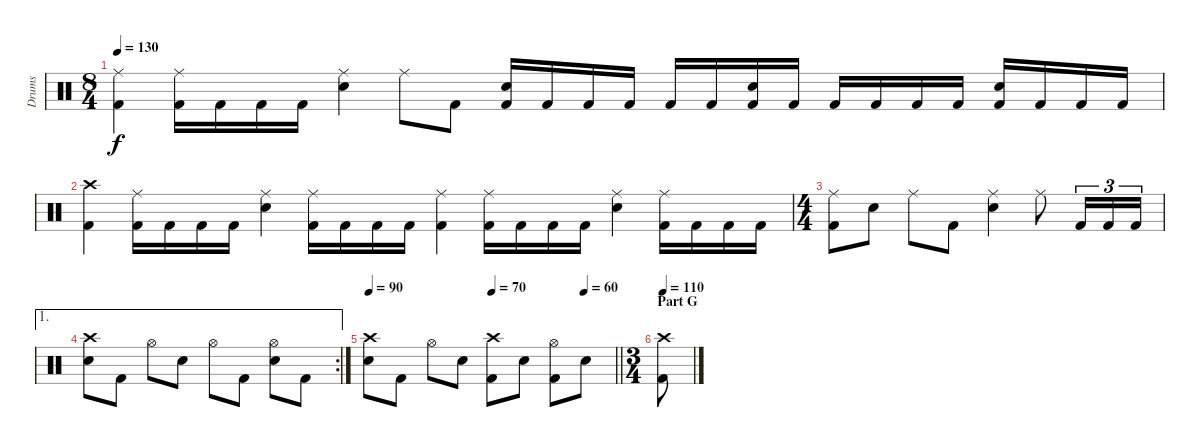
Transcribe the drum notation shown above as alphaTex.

\track ("Drums" "Drums") {instrument percussion}
\staff {score}
\articulation defaults
\ts (8 4)
\tempo 130
\clef neutral
\ks c
("Kick (hit) 2" "Ride (middle)").4{dy f} ("Kick (hit) 2" "Ride (middle)").16 "Kick (hit) 2".16 "Kick (hit) 2".16 "Kick (hit) 2".16 ("Snare (hit) 2" "Ride (middle)").4 "Ride (middle)".8 "Kick (hit) 2".8 ("Snare (hit) 2" "Kick (hit) 2").16 "Kick (hit) 2".16 "Kick (hit) 2".16 "Kick (hit) 2".16 "Kick (hit) 2".16 "Kick (hit) 2".16 ("Kick (hit) 2" "Snare (hit) 2").16 "Kick (hit) 2".16 "Kick (hit) 2".16 "Kick (hit) 2".16 "Kick (hit) 2".16 "Kick (hit) 2".16 ("Kick (hit) 2" "Snare (hit) 2").16 "Kick (hit) 2".16 "Kick (hit) 2".16 "Kick (hit) 2".16 |
("Kick (hit) 2" "Crash high (hit)").4 ("Kick (hit) 2" "Ride (middle)").16 "Kick (hit) 2".16 "Kick (hit) 2".16 "Kick (hit) 2".16 ("Snare (hit) 2" "Ride (middle)").4 ("Kick (hit) 2" "Ride (middle)").16 "Kick (hit) 2".16 "Kick (hit) 2".16 "Kick (hit) 2".16 ("Kick (hit) 2" "Ride (middle)").4 ("Kick (hit) 2" "Ride (middle)").16 "Kick (hit) 2".16 "Kick (hit) 2".16 "Kick (hit) 2".16 ("Snare (hit) 2" "Ride (middle)").4 ("Kick (hit) 2" "Ride (middle)").16 "Kick (hit) 2".16 "Kick (hit) 2".16 "Kick (hit) 2".16 |
\ts (4 4)
("Kick (hit) 2" "Ride (middle)").8 "Snare (hit) 2".8 "Ride (middle)".8 "Kick (hit) 2".8 ("Snare (hit) 2" "Ride (middle)").4 "Ride (middle)".8 "Kick (hit) 2".16{tu (3 2)} "Kick (hit) 2".16{tu (3 2)} "Kick (hit) 2".16{tu (3 2)} |
\ae 1
\rc 2
("Snare (hit) 2" "Crash high (hit)").8 "Kick (hit) 2".8 "Hi-Hat (open)".8 "Snare (hit) 2".8 "Hi-Hat (open)".8 "Kick (hit) 2".8 ("Hi-Hat (open)" "Snare (hit) 2").8 "Kick (hit) 2".8 |
\tempo 90
\tempo (70 0.5)
\tempo (60 0.875)
\barLineRight lightlight
("Snare (hit) 2" "Crash high (hit)").8 "Kick (hit) 2".8 "Hi-Hat (open)".8 "Snare (hit) 2".8 ("Crash high (hit)" "Kick (hit) 2").8 "Snare (hit) 2".8 ("Kick (hit) 2" "Hi-Hat (open)").8 "Snare (hit) 2".8 |
\ts (3 4)
\section ("" "Part G")
\tempo 110
("Kick (hit) 2" "Crash high (hit)").8
